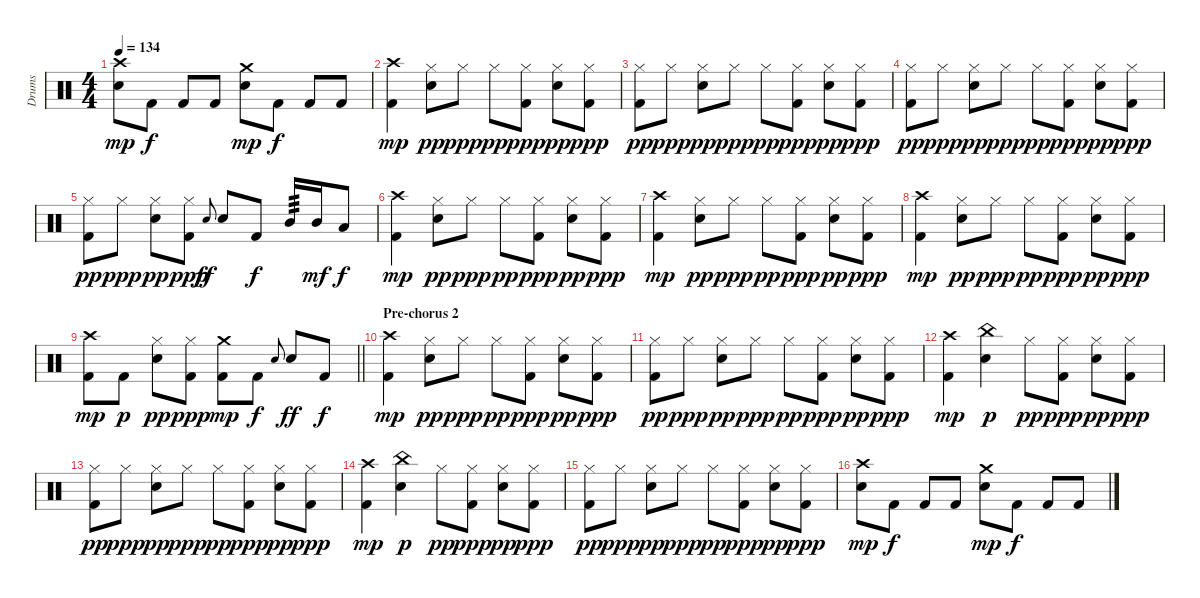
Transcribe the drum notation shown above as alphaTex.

\track ("Drums" "Drums") {instrument percussion}
\staff {score}
\articulation defaults
\ts (4 4)
\tempo 134
\clef neutral
\ks aminor
("Electric Snare (hit)" "Crash high (hit)").8{dy mp} "Kick (hit) 2".8{dy f} "Kick (hit) 2".8 "Kick (hit) 2".8 ("Electric Snare (hit)" "Crash medium (hit)").8{dy mp} "Kick (hit) 2".8{dy f} "Kick (hit) 2".8 "Kick (hit) 2".8 |
("Crash high (hit)" "Kick (hit) 2").4{dy mp} ("Hi-Hat (closed)" "Electric Snare (hit)").8{dy pp} "Hi-Hat (closed)".8{dy ppp} "Hi-Hat (closed)".8{dy pp} ("Kick (hit) 2" "Hi-Hat (closed)").8{dy ppp} ("Electric Snare (hit)" "Hi-Hat (closed)").8{dy pp} ("Kick (hit) 2" "Hi-Hat (closed)").8{dy ppp} |
("Hi-Hat (closed)" "Kick (hit) 2").8{dy pp} "Hi-Hat (closed)".8{dy ppp} ("Hi-Hat (closed)" "Electric Snare (hit)").8{dy pp} "Hi-Hat (closed)".8{dy ppp} "Hi-Hat (closed)".8{dy pp} ("Kick (hit) 2" "Hi-Hat (closed)").8{dy ppp} ("Electric Snare (hit)" "Hi-Hat (closed)").8{dy pp} ("Kick (hit) 2" "Hi-Hat (closed)").8{dy ppp} |
("Hi-Hat (closed)" "Kick (hit) 2").8{dy pp} "Hi-Hat (closed)".8{dy ppp} ("Hi-Hat (closed)" "Electric Snare (hit)").8{dy pp} "Hi-Hat (closed)".8{dy ppp} "Hi-Hat (closed)".8{dy pp} ("Kick (hit) 2" "Hi-Hat (closed)").8{dy ppp} ("Electric Snare (hit)" "Hi-Hat (closed)").8{dy pp} ("Kick (hit) 2" "Hi-Hat (closed)").8{dy ppp} |
("Hi-Hat (closed)" "Kick (hit) 2").8{dy pp} "Hi-Hat (closed)".8{dy ppp} ("Hi-Hat (closed)" "Electric Snare (hit)").8{dy pp} ("Kick (hit) 2" "Hi-Hat (closed)").8{dy ppp} "Electric Snare (hit)".8{gr onbeat dy ff} "Electric Snare (hit)".8 "Kick (hit) 2".8{dy f} "Mid Tom (hit)".16{tp 3} "Mid Tom (hit)".16{dy mf} "Low Tom (hit)".8{dy f} |
("Crash high (hit)" "Kick (hit) 2").4{dy mp} ("Hi-Hat (closed)" "Electric Snare (hit)").8{dy pp} "Hi-Hat (closed)".8{dy ppp} "Hi-Hat (closed)".8{dy pp} ("Kick (hit) 2" "Hi-Hat (closed)").8{dy ppp} ("Electric Snare (hit)" "Hi-Hat (closed)").8{dy pp} ("Kick (hit) 2" "Hi-Hat (closed)").8{dy ppp} |
("Crash high (hit)" "Kick (hit) 2").4{dy mp} ("Hi-Hat (closed)" "Electric Snare (hit)").8{dy pp} "Hi-Hat (closed)".8{dy ppp} "Hi-Hat (closed)".8{dy pp} ("Kick (hit) 2" "Hi-Hat (closed)").8{dy ppp} ("Electric Snare (hit)" "Hi-Hat (closed)").8{dy pp} ("Kick (hit) 2" "Hi-Hat (closed)").8{dy ppp} |
("Crash high (hit)" "Kick (hit) 2").4{dy mp} ("Hi-Hat (closed)" "Electric Snare (hit)").8{dy pp} "Hi-Hat (closed)".8{dy ppp} "Hi-Hat (closed)".8{dy pp} ("Kick (hit) 2" "Hi-Hat (closed)").8{dy ppp} ("Electric Snare (hit)" "Hi-Hat (closed)").8{dy pp} ("Kick (hit) 2" "Hi-Hat (closed)").8{dy ppp} |
\barLineRight lightlight
("Crash high (hit)" "Kick (hit) 2").8{dy mp} "Kick (hit) 2".8{dy p} ("Hi-Hat (closed)" "Electric Snare (hit)").8{dy pp} ("Kick (hit) 2" "Hi-Hat (closed)").8{dy ppp} ("Crash medium (hit)" "Kick (hit) 2").8{dy mp} "Kick (hit) 2".8{dy f} "Electric Snare (hit)".8{gr onbeat} "Electric Snare (hit)".8{dy ff} "Kick (hit) 2".8{dy f} |
\section ("" "Pre-chorus 2")
("Crash high (hit)" "Kick (hit) 2").4{dy mp} ("Hi-Hat (closed)" "Electric Snare (hit)").8{dy pp} "Hi-Hat (closed)".8{dy ppp} "Hi-Hat (closed)".8{dy pp} ("Kick (hit) 2" "Hi-Hat (closed)").8{dy ppp} ("Electric Snare (hit)" "Hi-Hat (closed)").8{dy pp} ("Kick (hit) 2" "Hi-Hat (closed)").8{dy ppp} |
("Hi-Hat (closed)" "Kick (hit) 2").8{dy pp} "Hi-Hat (closed)".8{dy ppp} ("Hi-Hat (closed)" "Electric Snare (hit)").8{dy pp} "Hi-Hat (closed)".8{dy ppp} "Hi-Hat (closed)".8{dy pp} ("Kick (hit) 2" "Hi-Hat (closed)").8{dy ppp} ("Electric Snare (hit)" "Hi-Hat (closed)").8{dy pp} ("Kick (hit) 2" "Hi-Hat (closed)").8{dy ppp} |
("Crash high (hit)" "Kick (hit) 2").4{dy mp} ("China (hit)" "Electric Snare (hit)").4{dy p} "Hi-Hat (closed)".8{dy pp} ("Kick (hit) 2" "Hi-Hat (closed)").8{dy ppp} ("Electric Snare (hit)" "Hi-Hat (closed)").8{dy pp} ("Kick (hit) 2" "Hi-Hat (closed)").8{dy ppp} |
("Hi-Hat (closed)" "Kick (hit) 2").8{dy pp} "Hi-Hat (closed)".8{dy ppp} ("Hi-Hat (closed)" "Electric Snare (hit)").8{dy pp} "Hi-Hat (closed)".8{dy ppp} "Hi-Hat (closed)".8{dy pp} ("Kick (hit) 2" "Hi-Hat (closed)").8{dy ppp} ("Electric Snare (hit)" "Hi-Hat (closed)").8{dy pp} ("Kick (hit) 2" "Hi-Hat (closed)").8{dy ppp} |
("Crash high (hit)" "Kick (hit) 2").4{dy mp} ("China (hit)" "Electric Snare (hit)").4{dy p} "Hi-Hat (closed)".8{dy pp} ("Kick (hit) 2" "Hi-Hat (closed)").8{dy ppp} ("Electric Snare (hit)" "Hi-Hat (closed)").8{dy pp} ("Kick (hit) 2" "Hi-Hat (closed)").8{dy ppp} |
("Hi-Hat (closed)" "Kick (hit) 2").8{dy pp} "Hi-Hat (closed)".8{dy ppp} ("Hi-Hat (closed)" "Electric Snare (hit)").8{dy pp} "Hi-Hat (closed)".8{dy ppp} "Hi-Hat (closed)".8{dy pp} ("Kick (hit) 2" "Hi-Hat (closed)").8{dy ppp} ("Electric Snare (hit)" "Hi-Hat (closed)").8{dy pp} ("Kick (hit) 2" "Hi-Hat (closed)").8{dy ppp} |
("Electric Snare (hit)" "Crash high (hit)").8{dy mp} "Kick (hit) 2".8{dy f} "Kick (hit) 2".8 "Kick (hit) 2".8 ("Electric Snare (hit)" "Crash medium (hit)").8{dy mp} "Kick (hit) 2".8{dy f} "Kick (hit) 2".8 "Kick (hit) 2".8
